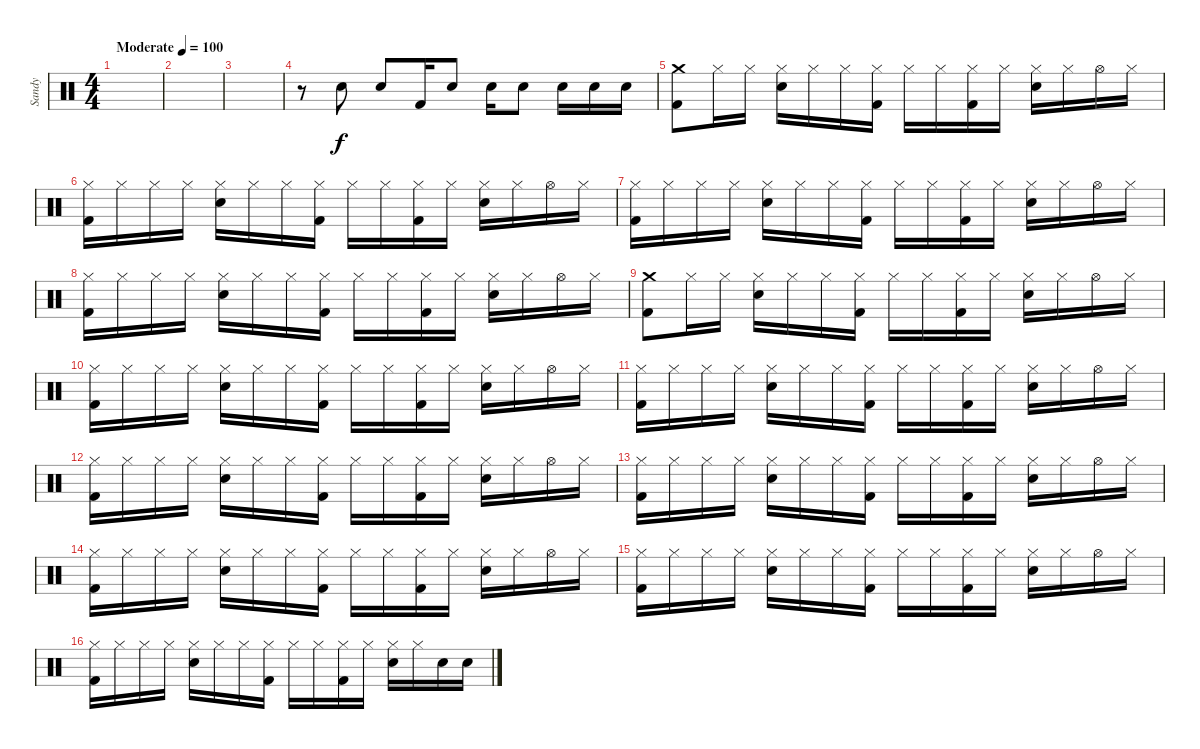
\track ("Sandy" "Sandy") {instrument percussion}
\staff {score}
\articulation defaults
\ts (4 4)
\tempo (100 "Moderate")
\clef neutral
\ks c
|
|
|
r.8 "Snare (hit) 2".8 "Snare (hit) 2".8 "Kick (hit) 2".16 "Snare (hit) 2".8 "Snare (hit) 2".16 "Snare (hit) 2".8 "Snare (hit) 2".16 "Snare (hit) 2".16 "Snare (hit) 2".16 |
("Crash medium (hit)" "Kick (hit) 2").8 "Hi-Hat (closed)".16 "Hi-Hat (closed)".16 ("Hi-Hat (closed)" "Snare (hit) 2").16 "Hi-Hat (closed)".16 "Hi-Hat (closed)".16 ("Hi-Hat (closed)" "Kick (hit) 2").16 "Hi-Hat (closed)".16 "Hi-Hat (closed)".16 ("Hi-Hat (closed)" "Kick (hit) 2").16 "Hi-Hat (closed)".16 ("Hi-Hat (closed)" "Snare (hit) 2").16 "Hi-Hat (closed)".16 "Hi-Hat (open)".16 "Hi-Hat (closed)".16 |
("Hi-Hat (closed)" "Kick (hit) 2").16 "Hi-Hat (closed)".16 "Hi-Hat (closed)".16 "Hi-Hat (closed)".16 ("Hi-Hat (closed)" "Snare (hit) 2").16 "Hi-Hat (closed)".16 "Hi-Hat (closed)".16 ("Hi-Hat (closed)" "Kick (hit) 2").16 "Hi-Hat (closed)".16 "Hi-Hat (closed)".16 ("Hi-Hat (closed)" "Kick (hit) 2").16 "Hi-Hat (closed)".16 ("Hi-Hat (closed)" "Snare (hit) 2").16 "Hi-Hat (closed)".16 "Hi-Hat (open)".16 "Hi-Hat (closed)".16 |
("Hi-Hat (closed)" "Kick (hit) 2").16 "Hi-Hat (closed)".16 "Hi-Hat (closed)".16 "Hi-Hat (closed)".16 ("Hi-Hat (closed)" "Snare (hit) 2").16 "Hi-Hat (closed)".16 "Hi-Hat (closed)".16 ("Hi-Hat (closed)" "Kick (hit) 2").16 "Hi-Hat (closed)".16 "Hi-Hat (closed)".16 ("Hi-Hat (closed)" "Kick (hit) 2").16 "Hi-Hat (closed)".16 ("Hi-Hat (closed)" "Snare (hit) 2").16 "Hi-Hat (closed)".16 "Hi-Hat (open)".16 "Hi-Hat (closed)".16 |
("Hi-Hat (closed)" "Kick (hit) 2").16 "Hi-Hat (closed)".16 "Hi-Hat (closed)".16 "Hi-Hat (closed)".16 ("Hi-Hat (closed)" "Snare (hit) 2").16 "Hi-Hat (closed)".16 "Hi-Hat (closed)".16 ("Hi-Hat (closed)" "Kick (hit) 2").16 "Hi-Hat (closed)".16 "Hi-Hat (closed)".16 ("Hi-Hat (closed)" "Kick (hit) 2").16 "Hi-Hat (closed)".16 ("Hi-Hat (closed)" "Snare (hit) 2").16 "Hi-Hat (closed)".16 "Hi-Hat (open)".16 "Hi-Hat (closed)".16 |
("Crash medium (hit)" "Kick (hit) 2").8 "Hi-Hat (closed)".16 "Hi-Hat (closed)".16 ("Hi-Hat (closed)" "Snare (hit) 2").16 "Hi-Hat (closed)".16 "Hi-Hat (closed)".16 ("Hi-Hat (closed)" "Kick (hit) 2").16 "Hi-Hat (closed)".16 "Hi-Hat (closed)".16 ("Hi-Hat (closed)" "Kick (hit) 2").16 "Hi-Hat (closed)".16 ("Hi-Hat (closed)" "Snare (hit) 2").16 "Hi-Hat (closed)".16 "Hi-Hat (open)".16 "Hi-Hat (closed)".16 |
("Hi-Hat (closed)" "Kick (hit) 2").16 "Hi-Hat (closed)".16 "Hi-Hat (closed)".16 "Hi-Hat (closed)".16 ("Hi-Hat (closed)" "Snare (hit) 2").16 "Hi-Hat (closed)".16 "Hi-Hat (closed)".16 ("Hi-Hat (closed)" "Kick (hit) 2").16 "Hi-Hat (closed)".16 "Hi-Hat (closed)".16 ("Hi-Hat (closed)" "Kick (hit) 2").16 "Hi-Hat (closed)".16 ("Hi-Hat (closed)" "Snare (hit) 2").16 "Hi-Hat (closed)".16 "Hi-Hat (open)".16 "Hi-Hat (closed)".16 |
("Hi-Hat (closed)" "Kick (hit) 2").16 "Hi-Hat (closed)".16 "Hi-Hat (closed)".16 "Hi-Hat (closed)".16 ("Hi-Hat (closed)" "Snare (hit) 2").16 "Hi-Hat (closed)".16 "Hi-Hat (closed)".16 ("Hi-Hat (closed)" "Kick (hit) 2").16 "Hi-Hat (closed)".16 "Hi-Hat (closed)".16 ("Hi-Hat (closed)" "Kick (hit) 2").16 "Hi-Hat (closed)".16 ("Hi-Hat (closed)" "Snare (hit) 2").16 "Hi-Hat (closed)".16 "Hi-Hat (open)".16 "Hi-Hat (closed)".16 |
("Hi-Hat (closed)" "Kick (hit) 2").16 "Hi-Hat (closed)".16 "Hi-Hat (closed)".16 "Hi-Hat (closed)".16 ("Hi-Hat (closed)" "Snare (hit) 2").16 "Hi-Hat (closed)".16 "Hi-Hat (closed)".16 ("Hi-Hat (closed)" "Kick (hit) 2").16 "Hi-Hat (closed)".16 "Hi-Hat (closed)".16 ("Hi-Hat (closed)" "Kick (hit) 2").16 "Hi-Hat (closed)".16 ("Hi-Hat (closed)" "Snare (hit) 2").16 "Hi-Hat (closed)".16 "Hi-Hat (open)".16 "Hi-Hat (closed)".16 |
("Hi-Hat (closed)" "Kick (hit) 2").16 "Hi-Hat (closed)".16 "Hi-Hat (closed)".16 "Hi-Hat (closed)".16 ("Hi-Hat (closed)" "Snare (hit) 2").16 "Hi-Hat (closed)".16 "Hi-Hat (closed)".16 ("Hi-Hat (closed)" "Kick (hit) 2").16 "Hi-Hat (closed)".16 "Hi-Hat (closed)".16 ("Hi-Hat (closed)" "Kick (hit) 2").16 "Hi-Hat (closed)".16 ("Hi-Hat (closed)" "Snare (hit) 2").16 "Hi-Hat (closed)".16 "Hi-Hat (open)".16 "Hi-Hat (closed)".16 |
("Hi-Hat (closed)" "Kick (hit) 2").16 "Hi-Hat (closed)".16 "Hi-Hat (closed)".16 "Hi-Hat (closed)".16 ("Hi-Hat (closed)" "Snare (hit) 2").16 "Hi-Hat (closed)".16 "Hi-Hat (closed)".16 ("Hi-Hat (closed)" "Kick (hit) 2").16 "Hi-Hat (closed)".16 "Hi-Hat (closed)".16 ("Hi-Hat (closed)" "Kick (hit) 2").16 "Hi-Hat (closed)".16 ("Hi-Hat (closed)" "Snare (hit) 2").16 "Hi-Hat (closed)".16 "Hi-Hat (open)".16 "Hi-Hat (closed)".16 |
("Hi-Hat (closed)" "Kick (hit) 2").16 "Hi-Hat (closed)".16 "Hi-Hat (closed)".16 "Hi-Hat (closed)".16 ("Hi-Hat (closed)" "Snare (hit) 2").16 "Hi-Hat (closed)".16 "Hi-Hat (closed)".16 ("Hi-Hat (closed)" "Kick (hit) 2").16 "Hi-Hat (closed)".16 "Hi-Hat (closed)".16 ("Hi-Hat (closed)" "Kick (hit) 2").16 "Hi-Hat (closed)".16 ("Hi-Hat (closed)" "Snare (hit) 2").16 "Hi-Hat (closed)".16 "Hi-Hat (open)".16 "Hi-Hat (closed)".16 |
("Hi-Hat (closed)" "Kick (hit) 2").16 "Hi-Hat (closed)".16 "Hi-Hat (closed)".16 "Hi-Hat (closed)".16 ("Hi-Hat (closed)" "Snare (hit) 2").16 "Hi-Hat (closed)".16 "Hi-Hat (closed)".16 ("Hi-Hat (closed)" "Kick (hit) 2").16 "Hi-Hat (closed)".16 "Hi-Hat (closed)".16 ("Hi-Hat (closed)" "Kick (hit) 2").16 "Hi-Hat (closed)".16 ("Hi-Hat (closed)" "Snare (hit) 2").16 "Hi-Hat (closed)".16 "Snare (hit) 2".16 "Snare (hit) 2".16
